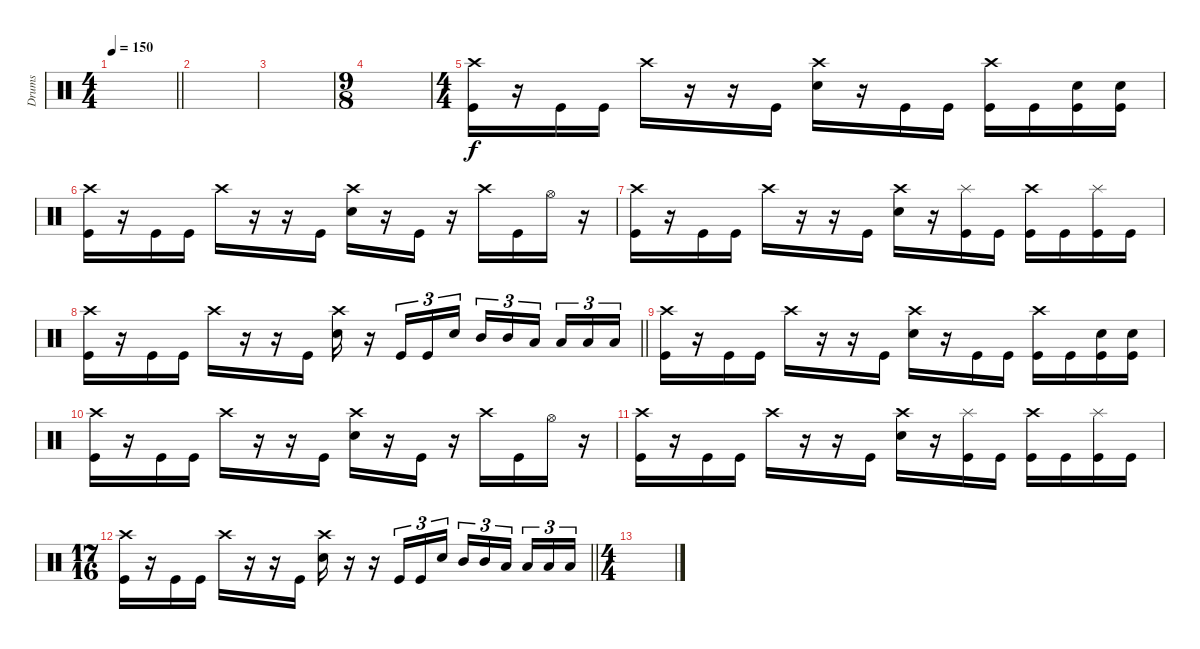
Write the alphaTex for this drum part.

\track ("Drums" "Drums") {instrument percussion}
\staff
\articulation defaults
\ts (4 4)
\tempo 150
\clef neutral
\barLineRight lightlight
\ks c
|
|
|
\ts (9 8)
|
\ts (4 4)
("Crash high (hit)" "Kick (hit)").16 r.16 "Kick (hit)".16 "Kick (hit)".16 "Crash high (hit)".16 r.16 r.16 "Kick (hit)".16 ("Crash high (hit)" "Electric Snare (hit)").16 r.16 "Kick (hit)".16 "Kick (hit)".16 ("Crash high (hit)" "Kick (hit)").16 "Kick (hit)".16 ("Electric Snare (hit)" "Kick (hit)").16 ("Electric Snare (hit)" "Kick (hit)").16 |
("Crash high (hit)" "Kick (hit)").16 r.16 "Kick (hit)".16 "Kick (hit)".16 "Crash high (hit)".16 r.16 r.16 "Kick (hit)".16 ("Crash high (hit)" "Electric Snare (hit)").16 r.16 "Kick (hit)".16 r.16 "Crash high (hit)".16 "Kick (hit)".16 "Hi-Hat (open)".16 r.16 |
("Crash high (hit)" "Kick (hit)").16 r.16 "Kick (hit)".16 "Kick (hit)".16 "Crash high (hit)".16 r.16 r.16 "Kick (hit)".16 ("Crash high (hit)" "Electric Snare (hit)").16 r.16 ("Splash (hit)" "Kick (hit)").16 "Kick (hit)".16 ("Crash high (hit)" "Kick (hit)").16 "Kick (hit)".16 ("Splash (hit)" "Kick (hit)").16 "Kick (hit)".16 |
\barLineRight lightlight
("Crash high (hit)" "Kick (hit)").16 r.16 "Kick (hit)".16 "Kick (hit)".16 "Crash high (hit)".16 r.16 r.16 "Kick (hit)".16 ("Crash high (hit)" "Electric Snare (hit)").16 r.16 "Kick (hit)".16{tu (3 2)} "Kick (hit)".16{tu (3 2)} "Electric Snare (hit)".16{tu (3 2)} "Mid Tom (hit)".16{tu (3 2)} "Mid Tom (hit)".16{tu (3 2)} "Low Tom (hit)".16{tu (3 2) beam splitsecondary} "Low Tom (hit)".16{tu (3 2)} "Low Floor Tom (hit)".16{tu (3 2)} "Low Floor Tom (hit)".16{tu (3 2)} |
("Crash high (hit)" "Kick (hit)").16 r.16 "Kick (hit)".16 "Kick (hit)".16 "Crash high (hit)".16 r.16 r.16 "Kick (hit)".16 ("Crash high (hit)" "Electric Snare (hit)").16 r.16 "Kick (hit)".16 "Kick (hit)".16 ("Crash high (hit)" "Kick (hit)").16 "Kick (hit)".16 ("Electric Snare (hit)" "Kick (hit)").16 ("Electric Snare (hit)" "Kick (hit)").16 |
("Crash high (hit)" "Kick (hit)").16 r.16 "Kick (hit)".16 "Kick (hit)".16 "Crash high (hit)".16 r.16 r.16 "Kick (hit)".16 ("Crash high (hit)" "Electric Snare (hit)").16 r.16 "Kick (hit)".16 r.16 "Crash high (hit)".16 "Kick (hit)".16 "Hi-Hat (open)".16 r.16 |
("Crash high (hit)" "Kick (hit)").16 r.16 "Kick (hit)".16 "Kick (hit)".16 "Crash high (hit)".16 r.16 r.16 "Kick (hit)".16 ("Crash high (hit)" "Electric Snare (hit)").16 r.16 ("Splash (hit)" "Kick (hit)").16 "Kick (hit)".16 ("Crash high (hit)" "Kick (hit)").16 "Kick (hit)".16 ("Splash (hit)" "Kick (hit)").16 "Kick (hit)".16 |
\ts (17 16)
\barLineRight lightlight
("Crash high (hit)" "Kick (hit)").16 r.16 "Kick (hit)".16 "Kick (hit)".16 "Crash high (hit)".16 r.16 r.16 "Kick (hit)".16 ("Crash high (hit)" "Electric Snare (hit)").16 r.16 r.16 "Kick (hit)".16{tu (3 2)} "Kick (hit)".16{tu (3 2)} "Electric Snare (hit)".16{tu (3 2)} "Mid Tom (hit)".16{tu (3 2)} "Mid Tom (hit)".16{tu (3 2)} "Low Tom (hit)".16{tu (3 2)} "Low Tom (hit)".16{tu (3 2)} "Low Floor Tom (hit)".16{tu (3 2)} "Low Floor Tom (hit)".16{tu (3 2)} |
\ts (4 4)
